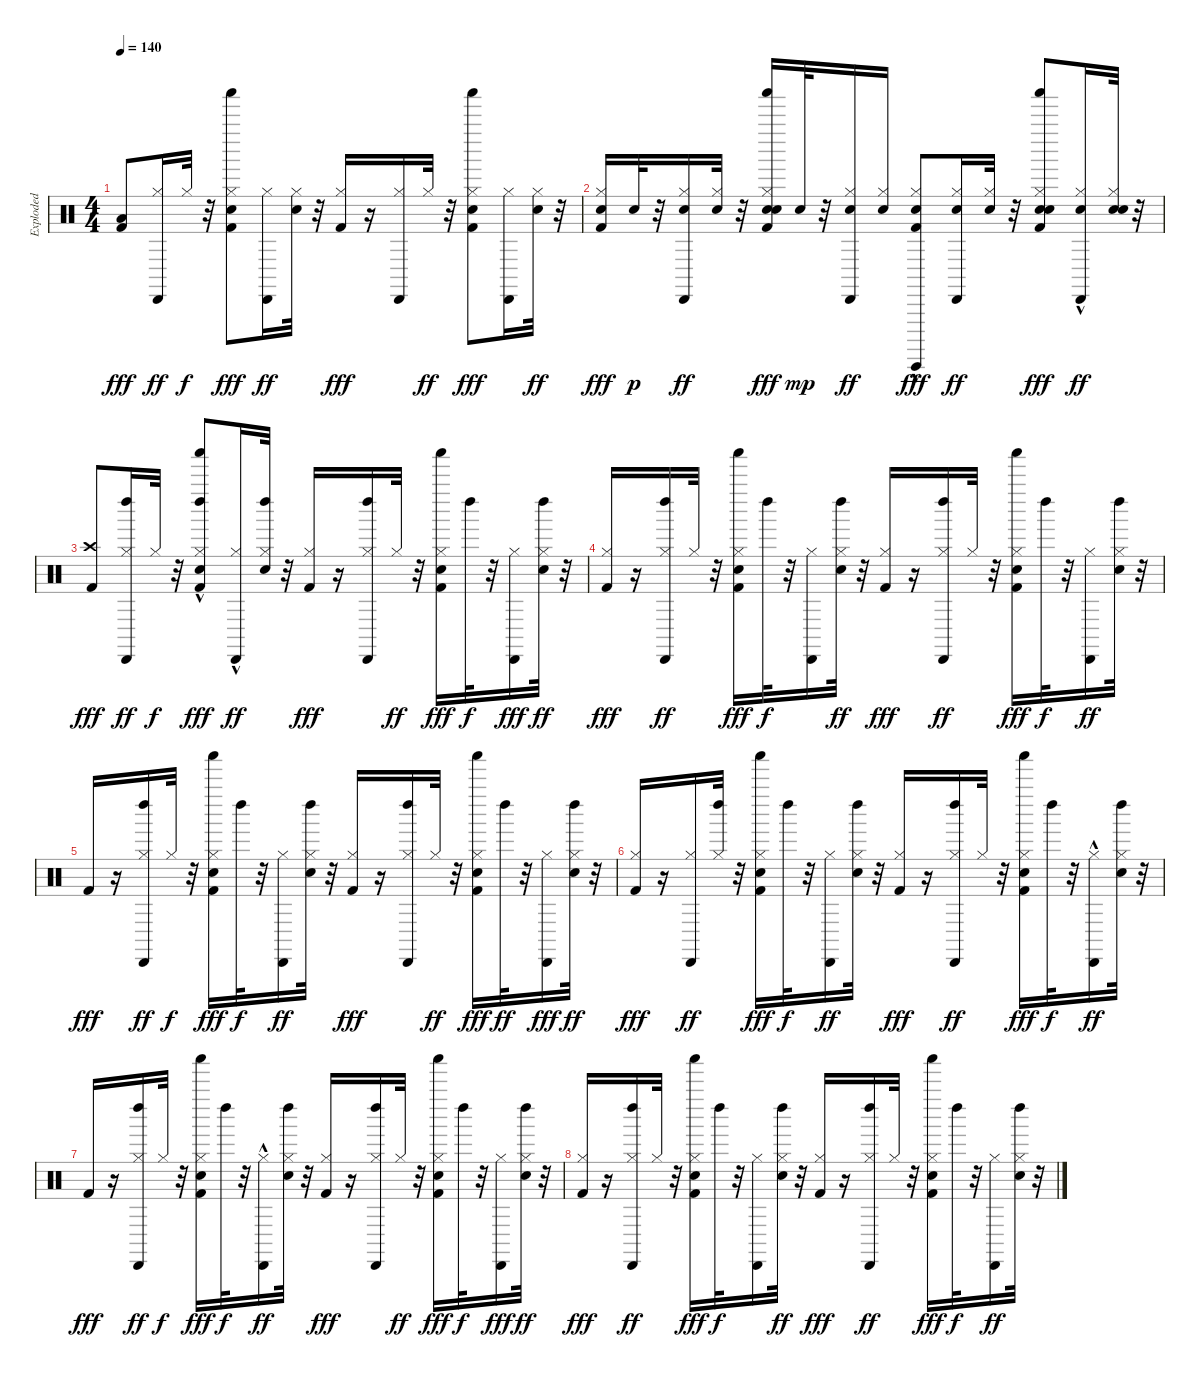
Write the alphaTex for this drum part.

\track ("Exploded" "Exploded") {instrument percussion}
\staff {score}
\articulation defaults
\ts (4 4)
\tempo 140
\clef neutral
\ks c
("Low Floor Tom (hit)" "Kick (hit) 2").8{dy fff} ("Cabasa (hit)" "Hi-Hat (closed)").16{dy ff} "Hi-Hat (closed)".32{dy f} r.32 ("Hand Clap (hit)" "Shaker (hit)" "Hi-Hat (closed)" "Kick (hit) 2").8{dy fff} ("Cabasa (hit)" "Hi-Hat (closed)").16{dy ff} ("Snare (hit) 2" "Hi-Hat (closed)").32 r.32 ("Hi-Hat (closed)" "Kick (hit) 2").16{dy fff} r.16 ("Cabasa (hit)" "Hi-Hat (closed)").16 "Hi-Hat (closed)".32{dy ff} r.32 ("Hand Clap (hit)" "Shaker (hit)" "Hi-Hat (closed)" "Kick (hit) 2").8{dy fff} ("Cabasa (hit)" "Hi-Hat (closed)").16 ("Snare (hit) 2" "Hi-Hat (closed)").32{dy ff} r.32 |
("Snare (hit) 2" "Hi-Hat (closed)" "Kick (hit) 2").16{dy fff} "Snare (hit) 2".32{dy p} r.32 ("Snare (hit) 2" "Cabasa (hit)" "Hi-Hat (closed)").16{dy ff} ("Snare (hit) 2" "Hi-Hat (closed)").32 r.32 ("Snare (hit) 2" "Hand Clap (hit)" "Shaker (hit)" "Hi-Hat (closed)" "Kick (hit) 2").16{dy fff} "Snare (hit) 2".32{dy mp} r.32 ("Snare (hit) 2" "Cabasa (hit)" "Hi-Hat (closed)").16{dy ff} ("Snare (hit) 2" "Hi-Hat (closed)").16 ("Snare (hit) 2" "Guiro (hit)"{hac} "Hi-Hat (closed)" "Kick (hit) 2").8{dy fff} ("Snare (hit) 2" "Cabasa (hit)" "Hi-Hat (closed)").16{dy ff} ("Snare (hit) 2" "Hi-Hat (closed)").32 r.32 ("Snare (hit) 2" "Hand Clap (hit)" "Shaker (hit)" "Hi-Hat (closed)" "Kick (hit) 2").8{dy fff} ("Snare (hit) 2" "Cabasa (hit)"{hac} "Hi-Hat (closed)").16{dy ff} ("Snare (hit) 2" "Snare (hit) 2" "Hi-Hat (closed)").32 r.32 |
("Crash high (hit)" "Kick (hit) 2").8{dy fff} ("Left Maraca (hit)" "Cabasa (hit)" "Hi-Hat (closed)").16{dy ff} "Hi-Hat (closed)".32{dy f} r.32 ("Left Maraca (hit)" "Hand Clap (hit)"{hac} "Shaker (hit)" "Hi-Hat (closed)" "Kick (hit) 2").8{dy fff} ("Cabasa (hit)"{hac} "Hi-Hat (closed)").16{dy ff} ("Snare (hit) 2" "Left Maraca (hit)" "Hi-Hat (closed)").32 r.32 ("Hi-Hat (closed)" "Kick (hit) 2").16{dy fff} r.16 ("Left Maraca (hit)" "Cabasa (hit)" "Hi-Hat (closed)").16 "Hi-Hat (closed)".32{dy ff} r.32 ("Hand Clap (hit)" "Shaker (hit)" "Hi-Hat (closed)" "Kick (hit) 2").16{dy fff} "Left Maraca (hit)".32{dy f} r.32 ("Cabasa (hit)" "Hi-Hat (closed)").16{dy fff} ("Snare (hit) 2" "Left Maraca (hit)" "Hi-Hat (closed)").32{dy ff} r.32 |
("Hi-Hat (closed)" "Kick (hit) 2").16{dy fff} r.16 ("Left Maraca (hit)" "Cabasa (hit)" "Hi-Hat (closed)").16{dy ff} "Hi-Hat (closed)".32 r.32 ("Hand Clap (hit)" "Shaker (hit)" "Hi-Hat (closed)" "Kick (hit) 2").16{dy fff} "Left Maraca (hit)".32{dy f} r.32 ("Cabasa (hit)" "Hi-Hat (closed)").16 ("Snare (hit) 2" "Left Maraca (hit)" "Hi-Hat (closed)").32{dy ff} r.32 ("Hi-Hat (closed)" "Kick (hit) 2").16{dy fff} r.16 ("Left Maraca (hit)" "Cabasa (hit)" "Hi-Hat (closed)").16{dy ff} "Hi-Hat (closed)".32 r.32 ("Hand Clap (hit)" "Shaker (hit)" "Hi-Hat (closed)" "Kick (hit) 2").16{dy fff} "Left Maraca (hit)".32{dy f} r.32 ("Cabasa (hit)" "Hi-Hat (closed)").16{dy ff} ("Snare (hit) 2" "Left Maraca (hit)" "Hi-Hat (closed)").32 r.32 |
"Kick (hit) 2".16{dy fff} r.16 ("Left Maraca (hit)" "Cabasa (hit)" "Hi-Hat (closed)").16{dy ff} "Hi-Hat (closed)".32{dy f} r.32 ("Hand Clap (hit)" "Shaker (hit)" "Hi-Hat (closed)" "Kick (hit) 2").16{dy fff} "Left Maraca (hit)".32{dy f} r.32 ("Cabasa (hit)" "Hi-Hat (closed)").16{dy ff} ("Snare (hit) 2" "Left Maraca (hit)" "Hi-Hat (closed)").32 r.32 ("Hi-Hat (closed)" "Kick (hit) 2").16{dy fff} r.16 ("Left Maraca (hit)" "Cabasa (hit)" "Hi-Hat (closed)").16 "Hi-Hat (closed)".32{dy ff} r.32 ("Hand Clap (hit)" "Shaker (hit)" "Hi-Hat (closed)" "Kick (hit) 2").16{dy fff} "Left Maraca (hit)".32{dy ff} r.32 ("Cabasa (hit)" "Hi-Hat (closed)").16{dy fff} ("Snare (hit) 2" "Left Maraca (hit)" "Hi-Hat (closed)").32{dy ff} r.32 |
("Hi-Hat (closed)" "Kick (hit) 2").16{dy fff} r.16 ("Cabasa (hit)" "Hi-Hat (closed)").16{dy ff} ("Left Maraca (hit)" "Hi-Hat (closed)").32 r.32 ("Hand Clap (hit)" "Shaker (hit)" "Hi-Hat (closed)" "Kick (hit) 2").16{dy fff} "Left Maraca (hit)".32{dy f} r.32 ("Cabasa (hit)" "Hi-Hat (closed)").16{dy ff} ("Snare (hit) 2" "Left Maraca (hit)" "Hi-Hat (closed)").32 r.32 ("Hi-Hat (closed)" "Kick (hit) 2").16{dy fff} r.16 ("Left Maraca (hit)" "Cabasa (hit)" "Hi-Hat (closed)").16{dy ff} "Hi-Hat (closed)".32 r.32 ("Hand Clap (hit)" "Shaker (hit)" "Hi-Hat (closed)" "Kick (hit) 2").16{dy fff} "Left Maraca (hit)".32{dy f} r.32 ("Cabasa (hit)"{hac} "Hi-Hat (closed)").16{dy ff} ("Snare (hit) 2" "Left Maraca (hit)" "Hi-Hat (closed)").32 r.32 |
"Kick (hit) 2".16{dy fff} r.16 ("Left Maraca (hit)" "Cabasa (hit)" "Hi-Hat (closed)").16{dy ff} "Hi-Hat (closed)".32{dy f} r.32 ("Hand Clap (hit)" "Shaker (hit)" "Hi-Hat (closed)" "Kick (hit) 2").16{dy fff} "Left Maraca (hit)".32{dy f} r.32 ("Cabasa (hit)"{hac} "Hi-Hat (closed)").16{dy ff} ("Snare (hit) 2" "Left Maraca (hit)" "Hi-Hat (closed)").32 r.32 ("Hi-Hat (closed)" "Kick (hit) 2").16{dy fff} r.16 ("Left Maraca (hit)" "Cabasa (hit)" "Hi-Hat (closed)").16 "Hi-Hat (closed)".32{dy ff} r.32 ("Hand Clap (hit)" "Shaker (hit)" "Hi-Hat (closed)" "Kick (hit) 2").16{dy fff} "Left Maraca (hit)".32{dy f} r.32 ("Cabasa (hit)" "Hi-Hat (closed)").16{dy fff} ("Snare (hit) 2" "Left Maraca (hit)" "Hi-Hat (closed)").32{dy ff} r.32 |
("Hi-Hat (closed)" "Kick (hit) 2").16{dy fff} r.16 ("Left Maraca (hit)" "Cabasa (hit)" "Hi-Hat (closed)").16{dy ff} "Hi-Hat (closed)".32 r.32 ("Hand Clap (hit)" "Shaker (hit)" "Hi-Hat (closed)" "Kick (hit) 2").16{dy fff} "Left Maraca (hit)".32{dy f} r.32 ("Cabasa (hit)" "Hi-Hat (closed)").16 ("Snare (hit) 2" "Left Maraca (hit)" "Hi-Hat (closed)").32{dy ff} r.32 ("Hi-Hat (closed)" "Kick (hit) 2").16{dy fff} r.16 ("Left Maraca (hit)" "Cabasa (hit)" "Hi-Hat (closed)").16{dy ff} "Hi-Hat (closed)".32 r.32 ("Hand Clap (hit)" "Shaker (hit)" "Hi-Hat (closed)" "Kick (hit) 2").16{dy fff} "Left Maraca (hit)".32{dy f} r.32 ("Cabasa (hit)" "Hi-Hat (closed)").16{dy ff} ("Snare (hit) 2" "Left Maraca (hit)" "Hi-Hat (closed)").32 r.32
